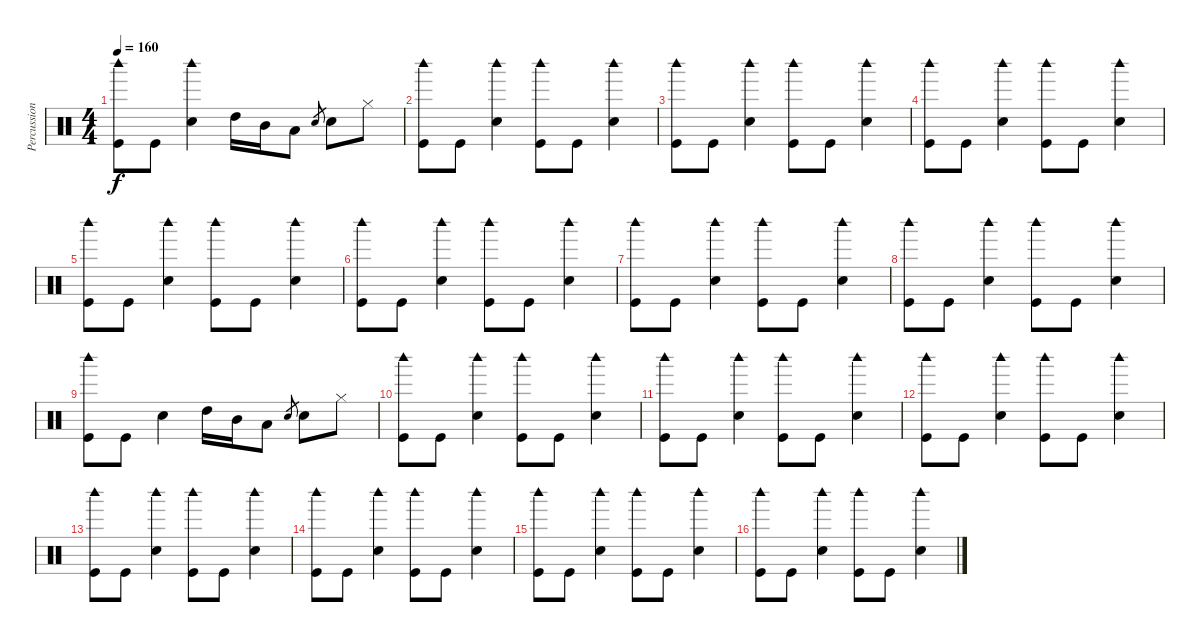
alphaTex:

\track ("Percussion" "Percussion") {instrument percussion}
\staff {score}
\articulation defaults
\ts (4 4)
\tempo 160
\clef neutral
\ks c
("Woodblock high (hit)" "Kick (hit)").8{dy f} "Kick (hit)".8 ("Woodblock high (hit)" "Snare (hit) 2").4 "High Tom (hit)".16 "Mid Tom (hit)".16 "Low Tom (hit)".8 "Electric Snare (hit)".8{gr} "Snare (hit) 2".8 "Hi-Hat (closed)".8 |
("Woodblock high (hit)" "Kick (hit)").8 "Kick (hit)".8 ("Woodblock high (hit)" "Snare (hit) 2").4 ("Woodblock high (hit)" "Kick (hit)").8 "Kick (hit)".8 ("Woodblock high (hit)" "Snare (hit) 2").4 |
("Woodblock high (hit)" "Kick (hit)").8 "Kick (hit)".8 ("Woodblock high (hit)" "Snare (hit) 2").4 ("Woodblock high (hit)" "Kick (hit)").8 "Kick (hit)".8 ("Woodblock high (hit)" "Snare (hit) 2").4 |
("Woodblock high (hit)" "Kick (hit)").8 "Kick (hit)".8 ("Woodblock high (hit)" "Snare (hit) 2").4 ("Woodblock high (hit)" "Kick (hit)").8 "Kick (hit)".8 ("Woodblock high (hit)" "Snare (hit) 2").4 |
("Woodblock high (hit)" "Kick (hit)").8 "Kick (hit)".8 ("Woodblock high (hit)" "Snare (hit) 2").4 ("Woodblock high (hit)" "Kick (hit)").8 "Kick (hit)".8 ("Woodblock high (hit)" "Snare (hit) 2").4 |
("Woodblock high (hit)" "Kick (hit)").8 "Kick (hit)".8 ("Woodblock high (hit)" "Snare (hit) 2").4 ("Woodblock high (hit)" "Kick (hit)").8 "Kick (hit)".8 ("Woodblock high (hit)" "Snare (hit) 2").4 |
("Woodblock high (hit)" "Kick (hit)").8 "Kick (hit)".8 ("Woodblock high (hit)" "Snare (hit) 2").4 ("Woodblock high (hit)" "Kick (hit)").8 "Kick (hit)".8 ("Woodblock high (hit)" "Snare (hit) 2").4 |
("Woodblock high (hit)" "Kick (hit)").8 "Kick (hit)".8 ("Woodblock high (hit)" "Snare (hit) 2").4 ("Woodblock high (hit)" "Kick (hit)").8 "Kick (hit)".8 ("Woodblock high (hit)" "Snare (hit) 2").4 |
("Woodblock high (hit)" "Kick (hit)").8 "Kick (hit)".8 "Snare (hit) 2".4 "High Tom (hit)".16 "Mid Tom (hit)".16 "Low Tom (hit)".8 "Electric Snare (hit)".8{gr} "Snare (hit) 2".8 "Hi-Hat (closed)".8 |
("Woodblock high (hit)" "Kick (hit)").8 "Kick (hit)".8 ("Woodblock high (hit)" "Snare (hit) 2").4 ("Woodblock high (hit)" "Kick (hit)").8 "Kick (hit)".8 ("Woodblock high (hit)" "Snare (hit) 2").4 |
("Woodblock high (hit)" "Kick (hit)").8 "Kick (hit)".8 ("Woodblock high (hit)" "Snare (hit) 2").4 ("Woodblock high (hit)" "Kick (hit)").8 "Kick (hit)".8 ("Woodblock high (hit)" "Snare (hit) 2").4 |
("Woodblock high (hit)" "Kick (hit)").8 "Kick (hit)".8 ("Woodblock high (hit)" "Snare (hit) 2").4 ("Woodblock high (hit)" "Kick (hit)").8 "Kick (hit)".8 ("Woodblock high (hit)" "Snare (hit) 2").4 |
("Woodblock high (hit)" "Kick (hit)").8 "Kick (hit)".8 ("Woodblock high (hit)" "Snare (hit) 2").4 ("Woodblock high (hit)" "Kick (hit)").8 "Kick (hit)".8 ("Woodblock high (hit)" "Snare (hit) 2").4 |
("Woodblock high (hit)" "Kick (hit)").8 "Kick (hit)".8 ("Woodblock high (hit)" "Snare (hit) 2").4 ("Woodblock high (hit)" "Kick (hit)").8 "Kick (hit)".8 ("Woodblock high (hit)" "Snare (hit) 2").4 |
("Woodblock high (hit)" "Kick (hit)").8 "Kick (hit)".8 ("Woodblock high (hit)" "Snare (hit) 2").4 ("Woodblock high (hit)" "Kick (hit)").8 "Kick (hit)".8 ("Woodblock high (hit)" "Snare (hit) 2").4 |
("Woodblock high (hit)" "Kick (hit)").8 "Kick (hit)".8 ("Woodblock high (hit)" "Snare (hit) 2").4 ("Woodblock high (hit)" "Kick (hit)").8 "Kick (hit)".8 ("Woodblock high (hit)" "Snare (hit) 2").4
